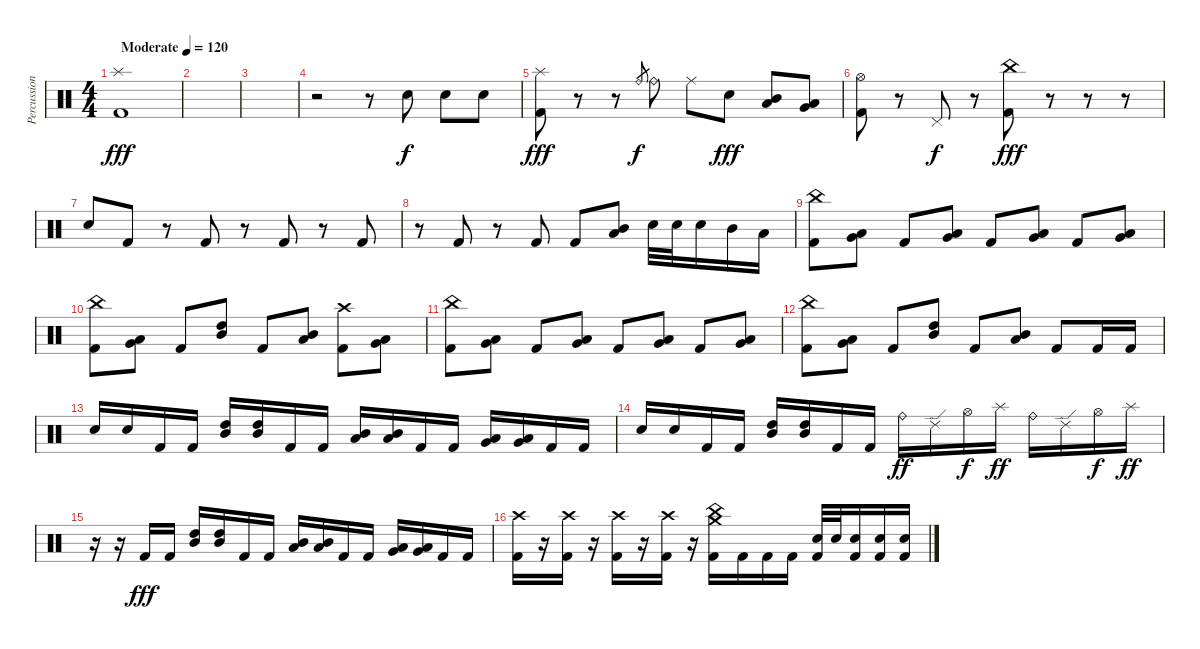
\track ("Percussion" "Percussion") {instrument percussion}
\staff {score}
\articulation defaults
\ts (4 4)
\tempo (120 "Moderate")
\clef neutral
\ks c
("Splash (hit)" "Kick (hit) 2").1{dy fff} |
|
|
r.2 r.8 "Electric Snare (hit)".8{dy f} "Electric Snare (hit)".8 "Electric Snare (hit)".8 |
("Splash (hit)" "Kick (hit) 2").8{dy fff} r.8 r.8 "Ride (bell)"{x}.8{gr dy f} "Ride (bell)".8 "Ride (middle)".8 "Electric Snare (hit)".8{dy fff} ("Low Tom (hit)" "Mid Tom (hit)").8 ("Very Low Tom (hit)" "Low Tom (hit)").8 |
("Hi-Hat (open)" "Kick (hit) 2").8 r.8 "Pedal Hi-Hat (hit)".8{dy f} r.8 ("China (hit)" "Kick (hit) 2").8{dy fff} r.8 r.8 r.8 |
"Electric Snare (hit)".8 "Kick (hit) 2".8 r.8 "Kick (hit) 2".8 r.8 "Kick (hit) 2".8 r.8 "Kick (hit) 2".8 |
r.8 "Kick (hit) 2".8 r.8 "Kick (hit) 2".8 "Kick (hit) 2".8 ("Mid Tom (hit)" "Low Tom (hit)").8 "Electric Snare (hit)".32 "Electric Snare (hit)".32 "Electric Snare (hit)".16 "Mid Tom (hit)".16 "Low Tom (hit)".16 |
("China (hit)" "Kick (hit) 2").8 ("Very Low Tom (hit)" "Low Tom (hit)").8 "Kick (hit) 2".8 ("Very Low Tom (hit)" "Low Tom (hit)").8 "Kick (hit) 2".8 ("Very Low Tom (hit)" "Low Tom (hit)").8 "Kick (hit) 2".8 ("Very Low Tom (hit)" "Low Tom (hit)").8 |
("China (hit)" "Kick (hit) 2").8 ("Very Low Tom (hit)" "Low Tom (hit)").8 "Kick (hit) 2".8 ("Mid Tom (hit)" "High Tom (hit)").8 "Kick (hit) 2".8 ("Low Tom (hit)" "Mid Tom (hit)").8 ("Crash high (hit)" "Kick (hit) 2").8 ("Very Low Tom (hit)" "Low Tom (hit)").8 |
("China (hit)" "Kick (hit) 2").8 ("Very Low Tom (hit)" "Low Tom (hit)").8 "Kick (hit) 2".8 ("Very Low Tom (hit)" "Low Tom (hit)").8 "Kick (hit) 2".8 ("Very Low Tom (hit)" "Low Tom (hit)").8 "Kick (hit) 2".8 ("Very Low Tom (hit)" "Low Tom (hit)").8 |
("China (hit)" "Kick (hit) 2").8 ("Very Low Tom (hit)" "Low Tom (hit)").8 "Kick (hit) 2".8 ("Mid Tom (hit)" "High Tom (hit)").8 "Kick (hit) 2".8 ("Low Tom (hit)" "Mid Tom (hit)").8 "Kick (hit) 2".8 "Kick (hit) 2".16 "Kick (hit) 2".16 |
"Electric Snare (hit)".16 "Electric Snare (hit)".16 "Kick (hit) 2".16 "Kick (hit) 2".16 ("Mid Tom (hit)" "High Tom (hit)").16 ("Mid Tom (hit)" "High Tom (hit)").16 "Kick (hit) 2".16 "Kick (hit) 2".16 ("Low Tom (hit)" "Mid Tom (hit)").16 ("Low Tom (hit)" "Mid Tom (hit)").16 "Kick (hit) 2".16 "Kick (hit) 2".16 ("Very Low Tom (hit)" "Low Tom (hit)").16 ("Very Low Tom (hit)" "Low Tom (hit)").16 "Kick (hit) 2".16 "Kick (hit) 2".16 |
"Electric Snare (hit)".16 "Electric Snare (hit)".16 "Kick (hit) 2".16 "Kick (hit) 2".16 ("Mid Tom (hit)" "High Tom (hit)").16 ("Mid Tom (hit)" "High Tom (hit)").16 "Kick (hit) 2".16 "Kick (hit) 2".16 "Ride (bell)".16{dy ff} "Ride (edge) 2".16 "Hi-Hat (open)".16{dy f} "Splash (hit)".16{dy ff} "Ride (bell)".16 "Ride (edge) 2".16 "Hi-Hat (open)".16{dy f} "Splash (hit)".16{dy ff} |
r.16 r.16 "Kick (hit) 2".16{dy fff} "Kick (hit) 2".16 ("Mid Tom (hit)" "High Tom (hit)").16 ("Mid Tom (hit)" "High Tom (hit)").16 "Kick (hit) 2".16 "Kick (hit) 2".16 ("Low Tom (hit)" "Mid Tom (hit)").16 ("Low Tom (hit)" "Mid Tom (hit)").16 "Kick (hit) 2".16 "Kick (hit) 2".16 ("Very Low Tom (hit)" "Low Tom (hit)").16 ("Very Low Tom (hit)" "Low Tom (hit)").16 "Kick (hit) 2".16 "Kick (hit) 2".16 |
("Crash high (hit)" "Kick (hit) 2").16 r.16 ("Crash high (hit)" "Kick (hit) 2").16 r.16 ("Crash high (hit)" "Kick (hit) 2").16 r.16 ("Crash high (hit)" "Kick (hit) 2").16 r.16 ("Crash medium (hit)" "China (hit)" "Kick (hit) 2").16 "Kick (hit) 2".16 "Kick (hit) 2".16 "Kick (hit) 2".16 ("Electric Snare (hit)" "Kick (hit) 2").32 "Electric Snare (hit)".32 ("Electric Snare (hit)" "Kick (hit) 2").16 ("Electric Snare (hit)" "Kick (hit) 2").16 ("Electric Snare (hit)" "Kick (hit) 2").16
